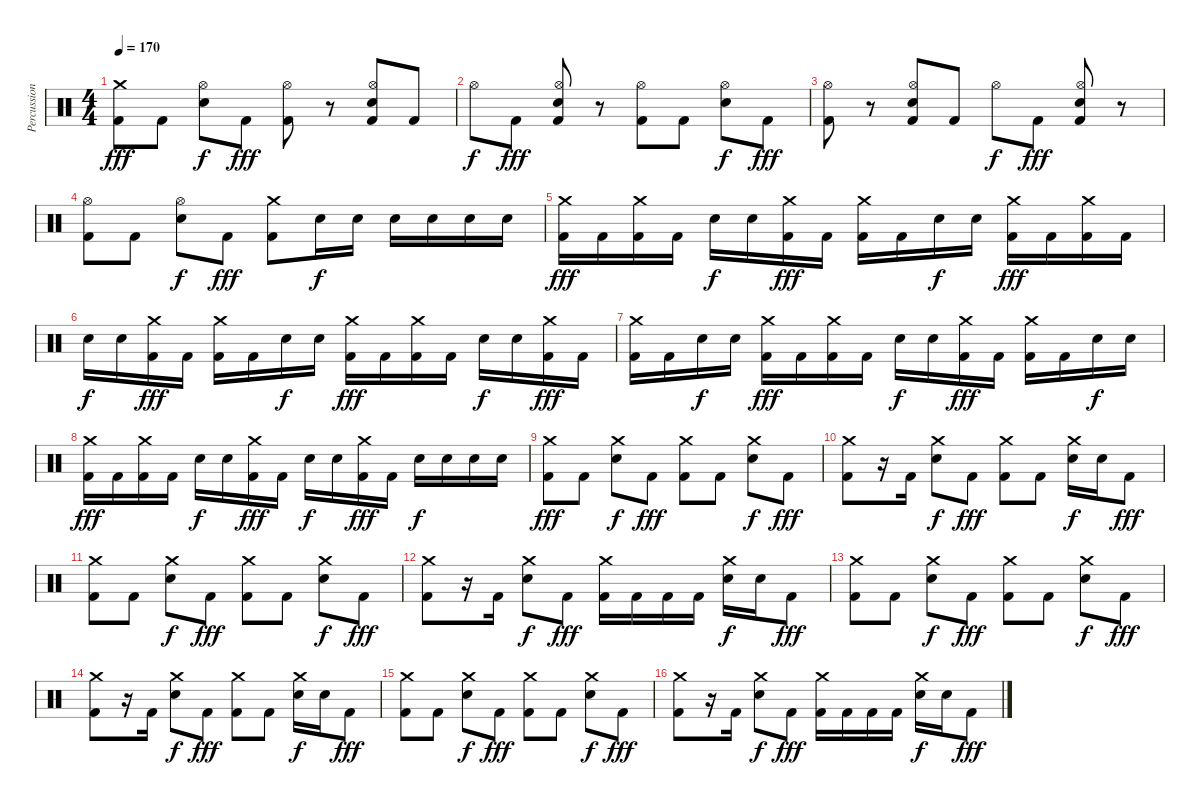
\track ("Percussion" "Percussion") {instrument percussion}
\staff {score}
\articulation defaults
\ts (4 4)
\tempo 170
\clef neutral
\ks c
("Crash medium (hit)" "Kick (hit) 2").8{dy fff} "Kick (hit) 2".8 ("Hi-Hat (open)" "Electric Snare (hit)").8{dy f} "Kick (hit) 2".8{dy fff} ("Hi-Hat (open)" "Kick (hit) 2").8 r.8 ("Hi-Hat (open)" "Electric Snare (hit)" "Kick (hit) 2").8 "Kick (hit) 2".8 |
"Hi-Hat (open)".8{dy f} "Kick (hit) 2".8{dy fff} ("Hi-Hat (open)" "Electric Snare (hit)" "Kick (hit) 2").8 r.8 ("Hi-Hat (open)" "Kick (hit) 2").8 "Kick (hit) 2".8 ("Hi-Hat (open)" "Electric Snare (hit)").8{dy f} "Kick (hit) 2".8{dy fff} |
("Hi-Hat (open)" "Kick (hit) 2").8 r.8 ("Hi-Hat (open)" "Electric Snare (hit)" "Kick (hit) 2").8 "Kick (hit) 2".8 "Hi-Hat (open)".8{dy f} "Kick (hit) 2".8{dy fff} ("Hi-Hat (open)" "Electric Snare (hit)" "Kick (hit) 2").8 r.8 |
("Hi-Hat (open)" "Kick (hit) 2").8 "Kick (hit) 2".8 ("Hi-Hat (open)" "Electric Snare (hit)").8{dy f} "Kick (hit) 2".8{dy fff} ("Crash medium (hit)" "Kick (hit) 2").8 "Electric Snare (hit)".16{dy f} "Electric Snare (hit)".16 "Electric Snare (hit)".16 "Electric Snare (hit)".16 "Electric Snare (hit)".16 "Electric Snare (hit)".16 |
("Crash medium (hit)" "Kick (hit) 2").16{dy fff} "Kick (hit) 2".16 ("Crash medium (hit)" "Kick (hit) 2").16 "Kick (hit) 2".16 "Electric Snare (hit)".16{dy f} "Electric Snare (hit)".16 ("Crash medium (hit)" "Kick (hit) 2").16{dy fff} "Kick (hit) 2".16 ("Crash medium (hit)" "Kick (hit) 2").16 "Kick (hit) 2".16 "Electric Snare (hit)".16{dy f} "Electric Snare (hit)".16 ("Crash medium (hit)" "Kick (hit) 2").16{dy fff} "Kick (hit) 2".16 ("Crash medium (hit)" "Kick (hit) 2").16 "Kick (hit) 2".16 |
"Electric Snare (hit)".16{dy f} "Electric Snare (hit)".16 ("Crash medium (hit)" "Kick (hit) 2").16{dy fff} "Kick (hit) 2".16 ("Crash medium (hit)" "Kick (hit) 2").16 "Kick (hit) 2".16 "Electric Snare (hit)".16{dy f} "Electric Snare (hit)".16 ("Crash medium (hit)" "Kick (hit) 2").16{dy fff} "Kick (hit) 2".16 ("Crash medium (hit)" "Kick (hit) 2").16 "Kick (hit) 2".16 "Electric Snare (hit)".16{dy f} "Electric Snare (hit)".16 ("Crash medium (hit)" "Kick (hit) 2").16{dy fff} "Kick (hit) 2".16 |
("Crash medium (hit)" "Kick (hit) 2").16 "Kick (hit) 2".16 "Electric Snare (hit)".16{dy f} "Electric Snare (hit)".16 ("Crash medium (hit)" "Kick (hit) 2").16{dy fff} "Kick (hit) 2".16 ("Crash medium (hit)" "Kick (hit) 2").16 "Kick (hit) 2".16 "Electric Snare (hit)".16{dy f} "Electric Snare (hit)".16 ("Crash medium (hit)" "Kick (hit) 2").16{dy fff} "Kick (hit) 2".16 ("Crash medium (hit)" "Kick (hit) 2").16 "Kick (hit) 2".16 "Electric Snare (hit)".16{dy f} "Electric Snare (hit)".16 |
("Crash medium (hit)" "Kick (hit) 2").16{dy fff} "Kick (hit) 2".16 ("Crash medium (hit)" "Kick (hit) 2").16 "Kick (hit) 2".16 "Electric Snare (hit)".16{dy f} "Electric Snare (hit)".16 ("Crash medium (hit)" "Kick (hit) 2").16{dy fff} "Kick (hit) 2".16 "Electric Snare (hit)".16{dy f} "Electric Snare (hit)".16 ("Crash medium (hit)" "Kick (hit) 2").16{dy fff} "Kick (hit) 2".16 "Electric Snare (hit)".16{dy f} "Electric Snare (hit)".16 "Electric Snare (hit)".16 "Electric Snare (hit)".16 |
("Crash medium (hit)" "Kick (hit) 2").8{dy fff} "Kick (hit) 2".8 ("Crash medium (hit)" "Electric Snare (hit)").8{dy f} "Kick (hit) 2".8{dy fff} ("Crash medium (hit)" "Kick (hit) 2").8 "Kick (hit) 2".8 ("Crash medium (hit)" "Electric Snare (hit)").8{dy f} "Kick (hit) 2".8{dy fff} |
("Crash medium (hit)" "Kick (hit) 2").8 r.16 "Kick (hit) 2".16 ("Crash medium (hit)" "Electric Snare (hit)").8{dy f} "Kick (hit) 2".8{dy fff} ("Crash medium (hit)" "Kick (hit) 2").8 "Kick (hit) 2".8 ("Crash medium (hit)" "Electric Snare (hit)").16{dy f} "Electric Snare (hit)".16 "Kick (hit) 2".8{dy fff} |
("Crash medium (hit)" "Kick (hit) 2").8 "Kick (hit) 2".8 ("Crash medium (hit)" "Electric Snare (hit)").8{dy f} "Kick (hit) 2".8{dy fff} ("Crash medium (hit)" "Kick (hit) 2").8 "Kick (hit) 2".8 ("Crash medium (hit)" "Electric Snare (hit)").8{dy f} "Kick (hit) 2".8{dy fff} |
("Crash medium (hit)" "Kick (hit) 2").8 r.16 "Kick (hit) 2".16 ("Crash medium (hit)" "Electric Snare (hit)").8{dy f} "Kick (hit) 2".8{dy fff} ("Crash medium (hit)" "Kick (hit) 2").16 "Kick (hit) 2".16 "Kick (hit) 2".16 "Kick (hit) 2".16 ("Crash medium (hit)" "Electric Snare (hit)").16{dy f} "Electric Snare (hit)".16 "Kick (hit) 2".8{dy fff} |
("Crash medium (hit)" "Kick (hit) 2").8 "Kick (hit) 2".8 ("Crash medium (hit)" "Electric Snare (hit)").8{dy f} "Kick (hit) 2".8{dy fff} ("Crash medium (hit)" "Kick (hit) 2").8 "Kick (hit) 2".8 ("Crash medium (hit)" "Electric Snare (hit)").8{dy f} "Kick (hit) 2".8{dy fff} |
("Crash medium (hit)" "Kick (hit) 2").8 r.16 "Kick (hit) 2".16 ("Crash medium (hit)" "Electric Snare (hit)").8{dy f} "Kick (hit) 2".8{dy fff} ("Crash medium (hit)" "Kick (hit) 2").8 "Kick (hit) 2".8 ("Crash medium (hit)" "Electric Snare (hit)").16{dy f} "Electric Snare (hit)".16 "Kick (hit) 2".8{dy fff} |
("Crash medium (hit)" "Kick (hit) 2").8 "Kick (hit) 2".8 ("Crash medium (hit)" "Electric Snare (hit)").8{dy f} "Kick (hit) 2".8{dy fff} ("Crash medium (hit)" "Kick (hit) 2").8 "Kick (hit) 2".8 ("Crash medium (hit)" "Electric Snare (hit)").8{dy f} "Kick (hit) 2".8{dy fff} |
("Crash medium (hit)" "Kick (hit) 2").8 r.16 "Kick (hit) 2".16 ("Crash medium (hit)" "Electric Snare (hit)").8{dy f} "Kick (hit) 2".8{dy fff} ("Crash medium (hit)" "Kick (hit) 2").16 "Kick (hit) 2".16 "Kick (hit) 2".16 "Kick (hit) 2".16 ("Crash medium (hit)" "Electric Snare (hit)").16{dy f} "Electric Snare (hit)".16 "Kick (hit) 2".8{dy fff}
